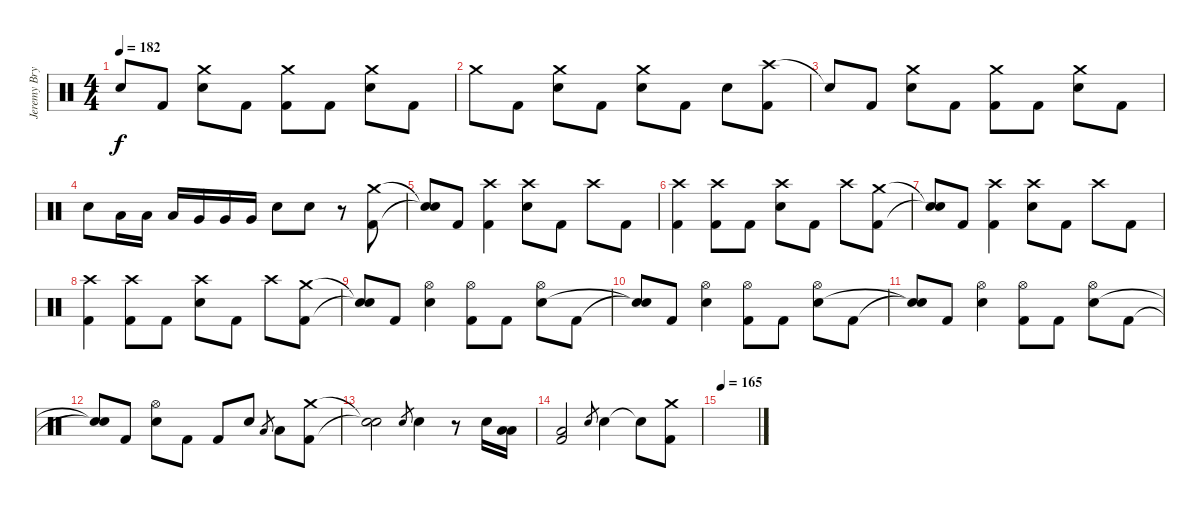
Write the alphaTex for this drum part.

\track ("Jeremy Bryan - Drums" "Jeremy Bry") {instrument percussion}
\staff {score}
\articulation defaults
\ts (4 4)
\tempo 182
\clef neutral
\ks c "Snare (hit)"{t}.8{dy f} "Kick (hit) 2".8
("Crash medium (hit)" "Electric Snare (hit)").8 "Kick (hit) 2".8 ("Crash medium (hit)" "Kick (hit) 2").8 "Kick (hit) 2".8 ("Crash medium (hit)" "Electric Snare (hit)").8 "Kick (hit) 2".8 |
"Crash medium (hit)".8 "Kick (hit) 2".8 ("Crash medium (hit)" "Electric Snare (hit)").8 "Kick (hit) 2".8 ("Crash medium (hit)" "Electric Snare (hit)").8 "Kick (hit) 2".8 "Electric Snare (hit)".8 ("Crash high (hit)" "Kick (hit) 2").8 |
"Snare (hit)"{t}.8 "Kick (hit) 2".8 ("Crash medium (hit)" "Electric Snare (hit)").8 "Kick (hit) 2".8 ("Crash medium (hit)" "Kick (hit) 2").8 "Kick (hit) 2".8 ("Crash medium (hit)" "Electric Snare (hit)").8 "Kick (hit) 2".8 |
"Electric Snare (hit)".8 "Low Tom (hit)".16 "Low Tom (hit)".16 "Low Tom (hit)".16 "Very Low Tom (hit)".16 "Very Low Tom (hit)".16 "Very Low Tom (hit)".16 "Electric Snare (hit)".8 "Electric Snare (hit)".8 r.8 ("Crash medium (hit)" "Kick (hit) 2").8 |
("Snare (hit)"{t} "Snare (hit)"{t}).8 "Kick (hit) 2".8 ("Crash high (hit)" "Kick (hit) 2").4 ("Crash high (hit)" "Electric Snare (hit)").8 "Kick (hit) 2".8 "Crash high (hit)".8 "Kick (hit) 2".8 |
("Crash high (hit)" "Kick (hit) 2").4 ("Crash high (hit)" "Kick (hit) 2").8 "Kick (hit) 2".8 ("Crash high (hit)" "Electric Snare (hit)").8 "Kick (hit) 2".8 "Crash high (hit)".8 ("Crash medium (hit)" "Kick (hit) 2").8 |
("Snare (hit)"{t} "Snare (hit)"{t}).8 "Kick (hit) 2".8 ("Crash high (hit)" "Kick (hit) 2").4 ("Crash high (hit)" "Electric Snare (hit)").8 "Kick (hit) 2".8 "Crash high (hit)".8 "Kick (hit) 2".8 |
("Crash high (hit)" "Kick (hit) 2").4 ("Crash high (hit)" "Kick (hit) 2").8 "Kick (hit) 2".8 ("Crash high (hit)" "Electric Snare (hit)").8 "Kick (hit) 2".8 "Crash high (hit)".8 ("Crash medium (hit)" "Kick (hit) 2").8 |
("Snare (hit)"{t} "Snare (hit)"{t}).8 "Kick (hit) 2".8 ("Hi-Hat (open)" "Electric Snare (hit)").4 ("Hi-Hat (open)" "Kick (hit) 2").8 "Kick (hit) 2".8 ("Hi-Hat (open)" "Electric Snare (hit)").8 "Kick (hit) 2".8 |
("Snare (hit)"{t} "Snare (hit)"{t}).8 "Kick (hit) 2".8 ("Hi-Hat (open)" "Electric Snare (hit)").4 ("Hi-Hat (open)" "Kick (hit) 2").8 "Kick (hit) 2".8 ("Hi-Hat (open)" "Electric Snare (hit)").8 "Kick (hit) 2".8 |
("Snare (hit)"{t} "Snare (hit)"{t}).8 "Kick (hit) 2".8 ("Hi-Hat (open)" "Electric Snare (hit)").4 ("Hi-Hat (open)" "Kick (hit) 2").8 "Kick (hit) 2".8 ("Hi-Hat (open)" "Electric Snare (hit)").8 "Kick (hit) 2".8 |
("Snare (hit)"{t} "Snare (hit)"{t}).8 "Kick (hit) 2".8 ("Hi-Hat (open)" "Electric Snare (hit)").8 "Kick (hit) 2".8 "Kick (hit) 2".8 "Electric Snare (hit)".8 "Low Tom (hit)".8{gr} "Low Tom (hit)".8 ("Crash medium (hit)" "Kick (hit) 2").8 |
("Snare (hit)"{t} "Snare (hit)"{t}).2 "Electric Snare (hit)".8{gr} "Electric Snare (hit)".4 r.8 "Electric Snare (hit)".16 ("Low Tom (hit)" "Low Tom (hit)").16 |
("Low Tom (hit)" "Kick (hit) 2").2 "Electric Snare (hit)".8{gr} "Electric Snare (hit)".4 "Snare (hit)"{t}.8 ("Crash medium (hit)" "Kick (hit) 2").8 |
\tempo 165
